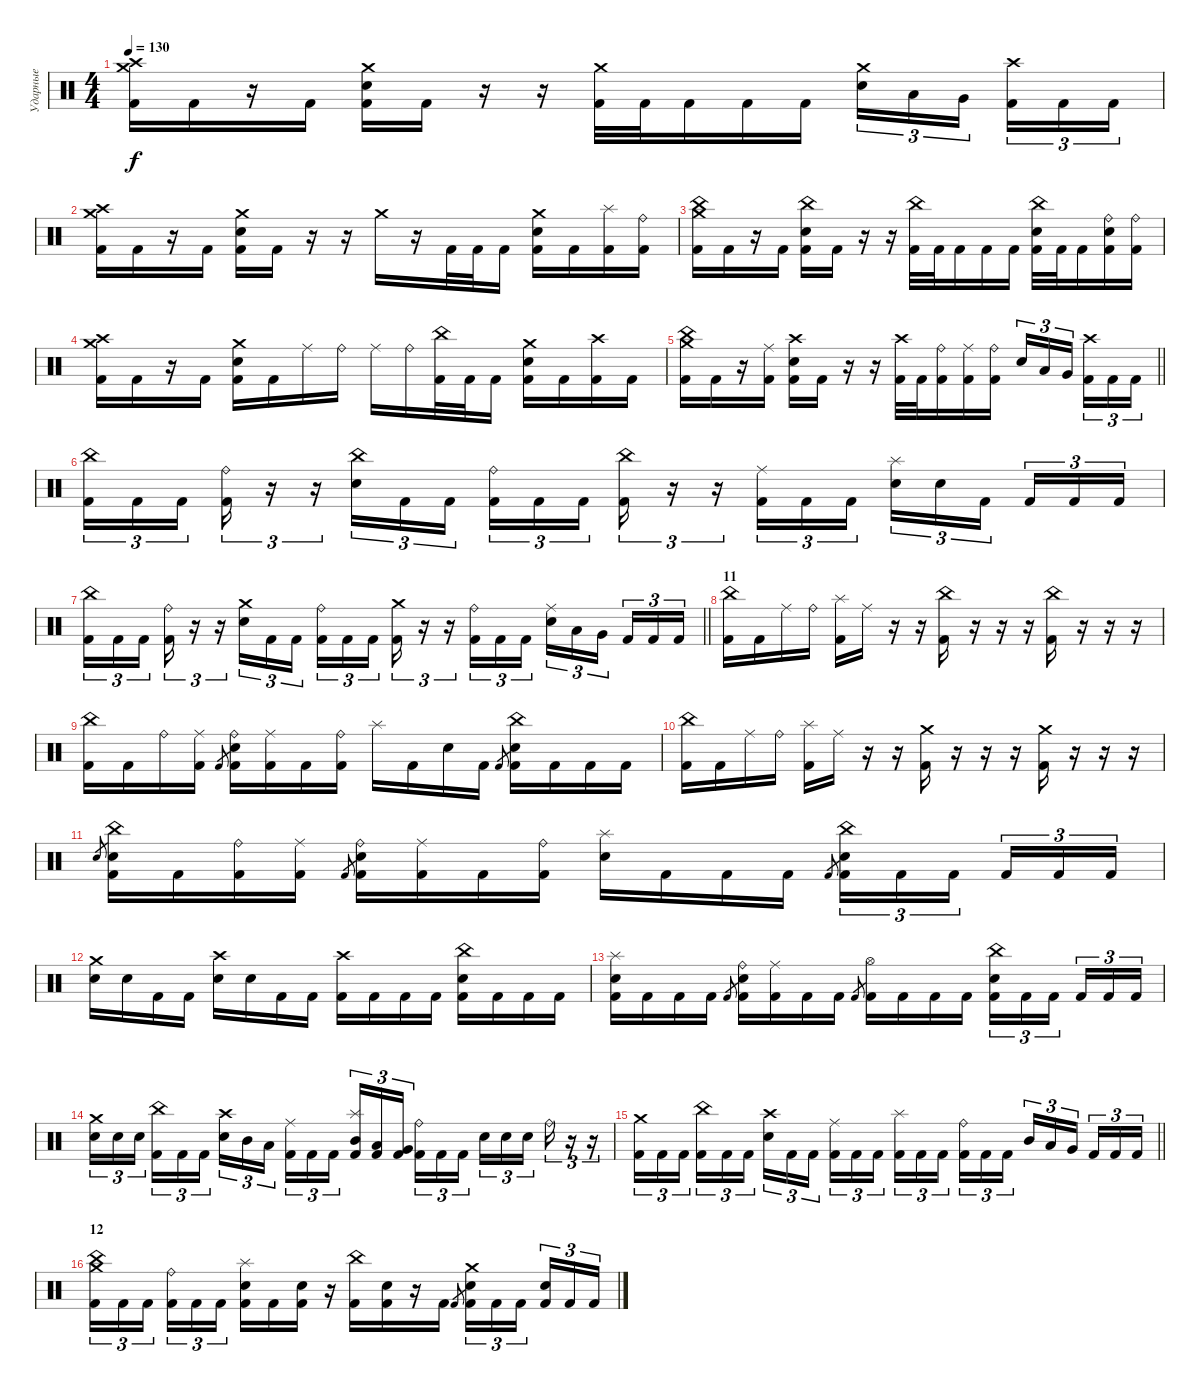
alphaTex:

\track ("Ударные" "Ударные") {instrument percussion}
\staff {score}
\articulation defaults
\ts (4 4)
\tempo 130
\clef neutral
\ks c
("Crash medium (hit)" "Crash high (hit)" "Kick (hit) 2").16{dy f} "Kick (hit) 2".16 r.16 "Kick (hit) 2".16 ("Crash medium (hit)" "Electric Snare (hit)" "Kick (hit) 2").16 "Kick (hit) 2".16 r.16 r.16 ("Crash medium (hit)" "Kick (hit) 2").32 "Kick (hit) 2".32 "Kick (hit) 2".16 "Kick (hit) 2".16 "Kick (hit) 2".16 ("Crash medium (hit)" "Electric Snare (hit)").16{tu (3 2)} "Low Tom (hit)".16{tu (3 2)} "Very Low Tom (hit)".16{tu (3 2) beam splitsecondary} ("Crash high (hit)" "Kick (hit) 2").16{tu (3 2)} "Kick (hit) 2".16{tu (3 2)} "Kick (hit) 2".16{tu (3 2)} |
("Crash medium (hit)" "Crash high (hit)" "Kick (hit) 2").16 "Kick (hit) 2".16 r.16 "Kick (hit) 2".16 ("Crash medium (hit)" "Electric Snare (hit)" "Kick (hit) 2").16 "Kick (hit) 2".16 r.16 r.16 "Crash medium (hit)".16 r.16 "Kick (hit) 2".32 "Kick (hit) 2".32 "Kick (hit) 2".16 ("Crash medium (hit)" "Electric Snare (hit)" "Kick (hit) 2").16 "Kick (hit) 2".16 ("Splash (hit)" "Kick (hit) 2").16 ("Ride (bell)" "Kick (hit) 2").16 |
("China (hit)" "Crash medium (hit)" "Kick (hit) 2").16 "Kick (hit) 2".16 r.16 "Kick (hit) 2".16 ("China (hit)" "Electric Snare (hit)" "Kick (hit) 2").16 "Kick (hit) 2".16 r.16 r.16 ("China (hit)" "Kick (hit) 2").32 "Kick (hit) 2".32 "Kick (hit) 2".16 "Kick (hit) 2".16 "Kick (hit) 2".16 ("China (hit)" "Electric Snare (hit)" "Kick (hit) 2").32 "Kick (hit) 2".32 "Kick (hit) 2".16 ("Ride (bell)" "Electric Snare (hit)" "Kick (hit) 2").16 ("Ride (bell)" "Kick (hit) 2").16 |
("Crash medium (hit)" "Crash high (hit)" "Kick (hit) 2").16 "Kick (hit) 2".16 r.16 "Kick (hit) 2".16 ("Crash medium (hit)" "Electric Snare (hit)" "Kick (hit) 2").16 "Kick (hit) 2".16 "Ride (middle)".16 "Ride (bell)".16 "Ride (middle)".16 "Ride (bell)".16 ("China (hit)" "Kick (hit) 2").32 "Kick (hit) 2".32 "Kick (hit) 2".16 ("Crash medium (hit)" "Electric Snare (hit)" "Kick (hit) 2").16 "Kick (hit) 2".16 ("Crash high (hit)" "Kick (hit) 2").16 "Kick (hit) 2".16 |
\barLineRight lightlight
("China (hit)" "Crash medium (hit)" "Kick (hit) 2").16 "Kick (hit) 2".16 r.16 ("Ride (middle)" "Kick (hit) 2").16 ("Crash high (hit)" "Electric Snare (hit)" "Kick (hit) 2").16 "Kick (hit) 2".16 r.16 r.16 ("Crash high (hit)" "Kick (hit) 2").32 "Kick (hit) 2".32 ("Ride (bell)" "Kick (hit) 2").16 ("Ride (middle)" "Kick (hit) 2").16 ("Ride (bell)" "Kick (hit) 2").16 "Electric Snare (hit)".16{tu (3 2)} "Low Tom (hit)".16{tu (3 2)} "Very Low Tom (hit)".16{tu (3 2) beam splitsecondary} ("Crash high (hit)" "Kick (hit) 2").16{tu (3 2)} "Kick (hit) 2".16{tu (3 2)} "Kick (hit) 2".16{tu (3 2)} |
("China (hit)" "Kick (hit) 2").16{tu (3 2)} "Kick (hit) 2".16{tu (3 2)} "Kick (hit) 2".16{tu (3 2) beam splitsecondary} ("Ride (bell)" "Kick (hit) 2").16{tu (3 2)} r.16{tu (3 2)} r.16{tu (3 2)} ("China (hit)" "Electric Snare (hit)").16{tu (3 2)} "Kick (hit) 2".16{tu (3 2)} "Kick (hit) 2".16{tu (3 2) beam splitsecondary} ("Ride (bell)" "Kick (hit) 2").16{tu (3 2)} "Kick (hit) 2".16{tu (3 2)} "Kick (hit) 2".16{tu (3 2)} ("China (hit)" "Kick (hit) 2").16{tu (3 2)} r.16{tu (3 2)} r.16{tu (3 2)} ("Ride (middle)" "Kick (hit) 2").16{tu (3 2)} "Kick (hit) 2".16{tu (3 2)} "Kick (hit) 2".16{tu (3 2)} ("Splash (hit)" "Electric Snare (hit)").16{tu (3 2)} "Electric Snare (hit)".16{tu (3 2)} "Kick (hit) 2".16{tu (3 2) beam splitsecondary} "Kick (hit) 2".16{tu (3 2)} "Kick (hit) 2".16{tu (3 2)} "Kick (hit) 2".16{tu (3 2)} |
\barLineRight lightlight
("China (hit)" "Kick (hit) 2").16{tu (3 2)} "Kick (hit) 2".16{tu (3 2)} "Kick (hit) 2".16{tu (3 2) beam splitsecondary} ("Ride (bell)" "Kick (hit) 2").16{tu (3 2)} r.16{tu (3 2)} r.16{tu (3 2)} ("Crash medium (hit)" "Electric Snare (hit)").16{tu (3 2)} "Kick (hit) 2".16{tu (3 2)} "Kick (hit) 2".16{tu (3 2) beam splitsecondary} ("Ride (bell)" "Kick (hit) 2").16{tu (3 2)} "Kick (hit) 2".16{tu (3 2)} "Kick (hit) 2".16{tu (3 2)} ("Crash medium (hit)" "Kick (hit) 2").16{tu (3 2)} r.16{tu (3 2)} r.16{tu (3 2)} ("Ride (bell)" "Kick (hit) 2").16{tu (3 2)} "Kick (hit) 2".16{tu (3 2)} "Kick (hit) 2".16{tu (3 2)} ("Ride (middle)" "Electric Snare (hit)").16{tu (3 2)} "Low Tom (hit)".16{tu (3 2)} "Very Low Tom (hit)".16{tu (3 2) beam splitsecondary} "Kick (hit) 2".16{tu (3 2)} "Kick (hit) 2".16{tu (3 2)} "Kick (hit) 2".16{tu (3 2)} |
\section ("" "11")
("China (hit)" "Kick (hit) 2").16 "Kick (hit) 2".16 "Ride (middle)".16 "Ride (bell)".16 ("Splash (hit)" "Kick (hit) 2").16 "Ride (middle)".16 r.16 r.16 ("China (hit)" "Kick (hit) 2").16 r.16 r.16 r.16 ("China (hit)" "Kick (hit) 2").16 r.16 r.16 r.16 |
("China (hit)" "Kick (hit) 2").16 "Kick (hit) 2".16 "Ride (bell)".16 ("Ride (middle)" "Kick (hit) 2").16 "Kick (hit) 2".8{gr} ("Ride (bell)" "Electric Snare (hit)" "Kick (hit) 2").16 ("Ride (middle)" "Kick (hit) 2").16 "Kick (hit) 2".16 ("Ride (bell)" "Kick (hit) 2").16 "Splash (hit)".16 "Kick (hit) 2".16 "Electric Snare (hit)".16 "Kick (hit) 2".16 "Kick (hit) 2".8{gr} ("China (hit)" "Electric Snare (hit)" "Kick (hit) 2").16 "Kick (hit) 2".16 "Kick (hit) 2".16 "Kick (hit) 2".16 |
("China (hit)" "Kick (hit) 2").16 "Kick (hit) 2".16 "Ride (middle)".16 "Ride (bell)".16 ("Splash (hit)" "Kick (hit) 2").16 "Ride (middle)".16 r.16 r.16 ("Crash medium (hit)" "Kick (hit) 2").16 r.16 r.16 r.16 ("Crash medium (hit)" "Kick (hit) 2").16 r.16 r.16 r.16 |
"Electric Snare (hit)".8{gr} ("China (hit)" "Electric Snare (hit)" "Kick (hit) 2").16 "Kick (hit) 2".16 ("Ride (bell)" "Kick (hit) 2").16 ("Ride (middle)" "Kick (hit) 2").16 "Kick (hit) 2".8{gr} ("Ride (bell)" "Electric Snare (hit)" "Kick (hit) 2").16 ("Ride (middle)" "Kick (hit) 2").16 "Kick (hit) 2".16 ("Ride (bell)" "Kick (hit) 2").16 ("Splash (hit)" "Electric Snare (hit)").16 "Kick (hit) 2".16 "Kick (hit) 2".16 "Kick (hit) 2".16 "Kick (hit) 2".8{gr} ("China (hit)" "Electric Snare (hit)" "Kick (hit) 2").16{tu (3 2)} "Kick (hit) 2".16{tu (3 2)} "Kick (hit) 2".16{tu (3 2) beam splitsecondary} "Kick (hit) 2".16{tu (3 2)} "Kick (hit) 2".16{tu (3 2)} "Kick (hit) 2".16{tu (3 2)} |
("Crash medium (hit)" "Electric Snare (hit)").16 "Electric Snare (hit)".16 "Kick (hit) 2".16 "Kick (hit) 2".16 ("Crash high (hit)" "Electric Snare (hit)").16 "Electric Snare (hit)".16 "Kick (hit) 2".16 "Kick (hit) 2".16 ("Crash high (hit)" "Kick (hit) 2").16 "Kick (hit) 2".16 "Kick (hit) 2".16 "Kick (hit) 2".16 ("China (hit)" "Electric Snare (hit)" "Kick (hit) 2").16 "Kick (hit) 2".16 "Kick (hit) 2".16 "Kick (hit) 2".16 |
("Splash (hit)" "Electric Snare (hit)" "Kick (hit) 2").16 "Kick (hit) 2".16 "Kick (hit) 2".16 "Kick (hit) 2".16 "Kick (hit) 2".8{gr} ("Ride (bell)" "Electric Snare (hit)" "Kick (hit) 2").16 ("Ride (middle)" "Kick (hit) 2").16 "Kick (hit) 2".16 "Kick (hit) 2".16 "Kick (hit) 2".8{gr} ("Hi-Hat (open)" "Kick (hit) 2").16 "Kick (hit) 2".16 "Kick (hit) 2".16 "Kick (hit) 2".16 ("China (hit)" "Electric Snare (hit)" "Kick (hit) 2").16{tu (3 2)} "Kick (hit) 2".16{tu (3 2)} "Kick (hit) 2".16{tu (3 2) beam splitsecondary} "Kick (hit) 2".16{tu (3 2)} "Kick (hit) 2".16{tu (3 2)} "Kick (hit) 2".16{tu (3 2)} |
("Crash medium (hit)" "Electric Snare (hit)").16{tu (3 2)} "Electric Snare (hit)".16{tu (3 2)} "Electric Snare (hit)".16{tu (3 2) beam splitsecondary} ("China (hit)" "Kick (hit) 2").16{tu (3 2)} "Kick (hit) 2".16{tu (3 2)} "Kick (hit) 2".16{tu (3 2)} ("Crash high (hit)" "Electric Snare (hit)").16{tu (3 2)} "Mid Tom (hit)".16{tu (3 2)} "Low Tom (hit)".16{tu (3 2) beam splitsecondary} ("Ride (middle)" "Kick (hit) 2").16{tu (3 2)} "Kick (hit) 2".16{tu (3 2)} "Kick (hit) 2".16{tu (3 2)} ("Splash (hit)" "Mid Tom (hit)" "Kick (hit) 2").16{tu (3 2)} ("Low Tom (hit)" "Kick (hit) 2").16{tu (3 2)} ("Very Low Tom (hit)" "Kick (hit) 2").16{tu (3 2) beam splitsecondary} ("Ride (bell)" "Kick (hit) 2").16{tu (3 2)} "Kick (hit) 2".16{tu (3 2)} "Kick (hit) 2".16{tu (3 2)} "Electric Snare (hit)".16{tu (3 2)} "Electric Snare (hit)".16{tu (3 2)} "Electric Snare (hit)".16{tu (3 2) beam splitsecondary} "Ride (bell)".16{tu (3 2)} r.16{tu (3 2)} r.16{tu (3 2)} |
\barLineRight lightlight
("Crash medium (hit)" "Kick (hit) 2").16{tu (3 2)} "Kick (hit) 2".16{tu (3 2)} "Kick (hit) 2".16{tu (3 2) beam splitsecondary} ("China (hit)" "Kick (hit) 2").16{tu (3 2)} "Kick (hit) 2".16{tu (3 2)} "Kick (hit) 2".16{tu (3 2)} ("Crash high (hit)" "Electric Snare (hit)").16{tu (3 2)} "Kick (hit) 2".16{tu (3 2)} "Kick (hit) 2".16{tu (3 2) beam splitsecondary} ("Ride (middle)" "Kick (hit) 2").16{tu (3 2)} "Kick (hit) 2".16{tu (3 2)} "Kick (hit) 2".16{tu (3 2)} ("Splash (hit)" "Kick (hit) 2").16{tu (3 2)} "Kick (hit) 2".16{tu (3 2)} "Kick (hit) 2".16{tu (3 2) beam splitsecondary} ("Ride (bell)" "Kick (hit) 2").16{tu (3 2)} "Kick (hit) 2".16{tu (3 2)} "Kick (hit) 2".16{tu (3 2)} "Mid Tom (hit)".16{tu (3 2)} "Low Tom (hit)".16{tu (3 2)} "Very Low Tom (hit)".16{tu (3 2) beam splitsecondary} "Kick (hit) 2".16{tu (3 2)} "Kick (hit) 2".16{tu (3 2)} "Kick (hit) 2".16{tu (3 2)} |
\section ("" "12")
("China (hit)" "Crash medium (hit)" "Kick (hit) 2").16{tu (3 2)} "Kick (hit) 2".16{tu (3 2)} "Kick (hit) 2".16{tu (3 2) beam splitsecondary} ("Ride (bell)" "Kick (hit) 2").16{tu (3 2)} "Kick (hit) 2".16{tu (3 2)} "Kick (hit) 2".16{tu (3 2)} ("Splash (hit)" "Electric Snare (hit)" "Kick (hit) 2").16 "Kick (hit) 2".16 ("Electric Snare (hit)" "Kick (hit) 2").16 r.16 ("China (hit)" "Kick (hit) 2").16 ("Electric Snare (hit)" "Kick (hit) 2").16 r.16 "Kick (hit) 2".16 "Kick (hit) 2".8{gr} ("Crash medium (hit)" "Electric Snare (hit)" "Kick (hit) 2").16{tu (3 2)} "Kick (hit) 2".16{tu (3 2)} "Kick (hit) 2".16{tu (3 2) beam splitsecondary} ("Electric Snare (hit)" "Kick (hit) 2").16{tu (3 2)} "Kick (hit) 2".16{tu (3 2)} "Kick (hit) 2".16{tu (3 2)}
